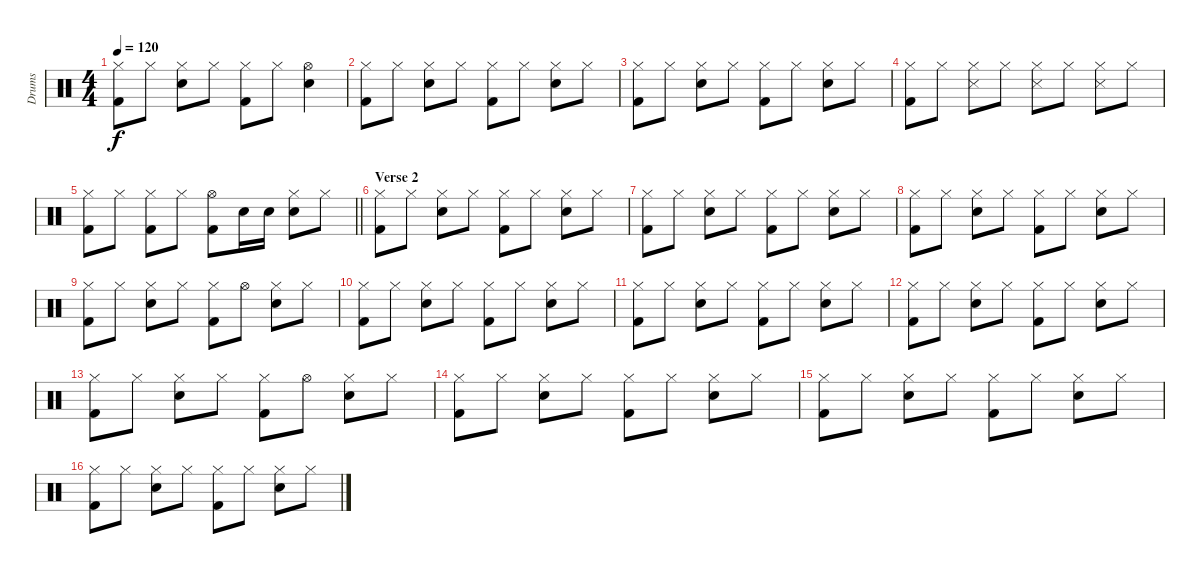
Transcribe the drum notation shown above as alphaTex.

\track ("Drums" "Drums") {instrument percussion}
\staff {score}
\articulation defaults
\ts (4 4)
\tempo 120
\clef neutral
\ks c
("Hi-Hat (closed)" "Kick (hit) 2").8{dy f} "Hi-Hat (closed)".8 ("Hi-Hat (closed)" "Snare (hit) 2").8 "Hi-Hat (closed)".8 ("Hi-Hat (closed)" "Kick (hit) 2").8 "Hi-Hat (closed)".8 ("Hi-Hat (open)" "Snare (hit) 2").4 |
("Hi-Hat (closed)" "Kick (hit) 2").8 "Hi-Hat (closed)".8 ("Hi-Hat (closed)" "Snare (hit) 2").8 "Hi-Hat (closed)".8 ("Hi-Hat (closed)" "Kick (hit) 2").8 "Hi-Hat (closed)".8 ("Hi-Hat (closed)" "Snare (hit) 2").8 "Hi-Hat (closed)".8 |
("Hi-Hat (closed)" "Kick (hit) 2").8 "Hi-Hat (closed)".8 ("Hi-Hat (closed)" "Snare (hit) 2").8 "Hi-Hat (closed)".8 ("Hi-Hat (closed)" "Kick (hit) 2").8 "Hi-Hat (closed)".8 ("Hi-Hat (closed)" "Snare (hit) 2").8 "Hi-Hat (closed)".8 |
("Hi-Hat (closed)" "Kick (hit) 2").8 "Hi-Hat (closed)".8 ("Hi-Hat (closed)" "Snare (side stick) 3").8 "Hi-Hat (closed)".8 ("Hi-Hat (closed)" "Snare (side stick) 3").8 "Hi-Hat (closed)".8 ("Hi-Hat (closed)" "Snare (side stick) 3").8 "Hi-Hat (closed)".8 |
\barLineRight lightlight
("Hi-Hat (closed)" "Kick (hit) 2").8 "Hi-Hat (closed)".8 ("Hi-Hat (closed)" "Kick (hit) 2").8 "Hi-Hat (closed)".8 ("Hi-Hat (open)" "Kick (hit) 2").8 "Snare (hit) 2".16 "Snare (hit) 2".16 ("Hi-Hat (closed)" "Snare (hit) 2").8 "Hi-Hat (closed)".8 |
\section ("" "Verse 2")
("Hi-Hat (closed)" "Kick (hit) 2").8 "Hi-Hat (closed)".8 ("Hi-Hat (closed)" "Snare (hit) 2").8 "Hi-Hat (closed)".8 ("Hi-Hat (closed)" "Kick (hit) 2").8 "Hi-Hat (closed)".8 ("Hi-Hat (closed)" "Snare (hit) 2").8 "Hi-Hat (closed)".8 |
("Hi-Hat (closed)" "Kick (hit) 2").8 "Hi-Hat (closed)".8 ("Hi-Hat (closed)" "Snare (hit) 2").8 "Hi-Hat (closed)".8 ("Hi-Hat (closed)" "Kick (hit) 2").8 "Hi-Hat (closed)".8 ("Hi-Hat (closed)" "Snare (hit) 2").8 "Hi-Hat (closed)".8 |
("Hi-Hat (closed)" "Kick (hit) 2").8 "Hi-Hat (closed)".8 ("Hi-Hat (closed)" "Snare (hit) 2").8 "Hi-Hat (closed)".8 ("Hi-Hat (closed)" "Kick (hit) 2").8 "Hi-Hat (closed)".8 ("Hi-Hat (closed)" "Snare (hit) 2").8 "Hi-Hat (closed)".8 |
("Hi-Hat (closed)" "Kick (hit) 2").8 "Hi-Hat (closed)".8 ("Hi-Hat (closed)" "Snare (hit) 2").8 "Hi-Hat (closed)".8 ("Hi-Hat (closed)" "Kick (hit) 2").8 "Hi-Hat (open)".8 ("Hi-Hat (closed)" "Snare (hit) 2").8 "Hi-Hat (closed)".8 |
("Hi-Hat (closed)" "Kick (hit) 2").8 "Hi-Hat (closed)".8 ("Hi-Hat (closed)" "Snare (hit) 2").8 "Hi-Hat (closed)".8 ("Hi-Hat (closed)" "Kick (hit) 2").8 "Hi-Hat (closed)".8 ("Hi-Hat (closed)" "Snare (hit) 2").8 "Hi-Hat (closed)".8 |
("Hi-Hat (closed)" "Kick (hit) 2").8 "Hi-Hat (closed)".8 ("Hi-Hat (closed)" "Snare (hit) 2").8 "Hi-Hat (closed)".8 ("Hi-Hat (closed)" "Kick (hit) 2").8 "Hi-Hat (closed)".8 ("Hi-Hat (closed)" "Snare (hit) 2").8 "Hi-Hat (closed)".8 |
("Hi-Hat (closed)" "Kick (hit) 2").8 "Hi-Hat (closed)".8 ("Hi-Hat (closed)" "Snare (hit) 2").8 "Hi-Hat (closed)".8 ("Hi-Hat (closed)" "Kick (hit) 2").8 "Hi-Hat (closed)".8 ("Hi-Hat (closed)" "Snare (hit) 2").8 "Hi-Hat (closed)".8 |
("Hi-Hat (closed)" "Kick (hit) 2").8 "Hi-Hat (closed)".8 ("Hi-Hat (closed)" "Snare (hit) 2").8 "Hi-Hat (closed)".8 ("Hi-Hat (closed)" "Kick (hit) 2").8 "Hi-Hat (open)".8 ("Hi-Hat (closed)" "Snare (hit) 2").8 "Hi-Hat (closed)".8 |
("Hi-Hat (closed)" "Kick (hit) 2").8 "Hi-Hat (closed)".8 ("Hi-Hat (closed)" "Snare (hit) 2").8 "Hi-Hat (closed)".8 ("Hi-Hat (closed)" "Kick (hit) 2").8 "Hi-Hat (closed)".8 ("Hi-Hat (closed)" "Snare (hit) 2").8 "Hi-Hat (closed)".8 |
("Hi-Hat (closed)" "Kick (hit) 2").8 "Hi-Hat (closed)".8 ("Hi-Hat (closed)" "Snare (hit) 2").8 "Hi-Hat (closed)".8 ("Hi-Hat (closed)" "Kick (hit) 2").8 "Hi-Hat (closed)".8 ("Hi-Hat (closed)" "Snare (hit) 2").8 "Hi-Hat (closed)".8 |
("Hi-Hat (closed)" "Kick (hit) 2").8 "Hi-Hat (closed)".8 ("Hi-Hat (closed)" "Snare (hit) 2").8 "Hi-Hat (closed)".8 ("Hi-Hat (closed)" "Kick (hit) 2").8 "Hi-Hat (closed)".8 ("Hi-Hat (closed)" "Snare (hit) 2").8 "Hi-Hat (closed)".8
